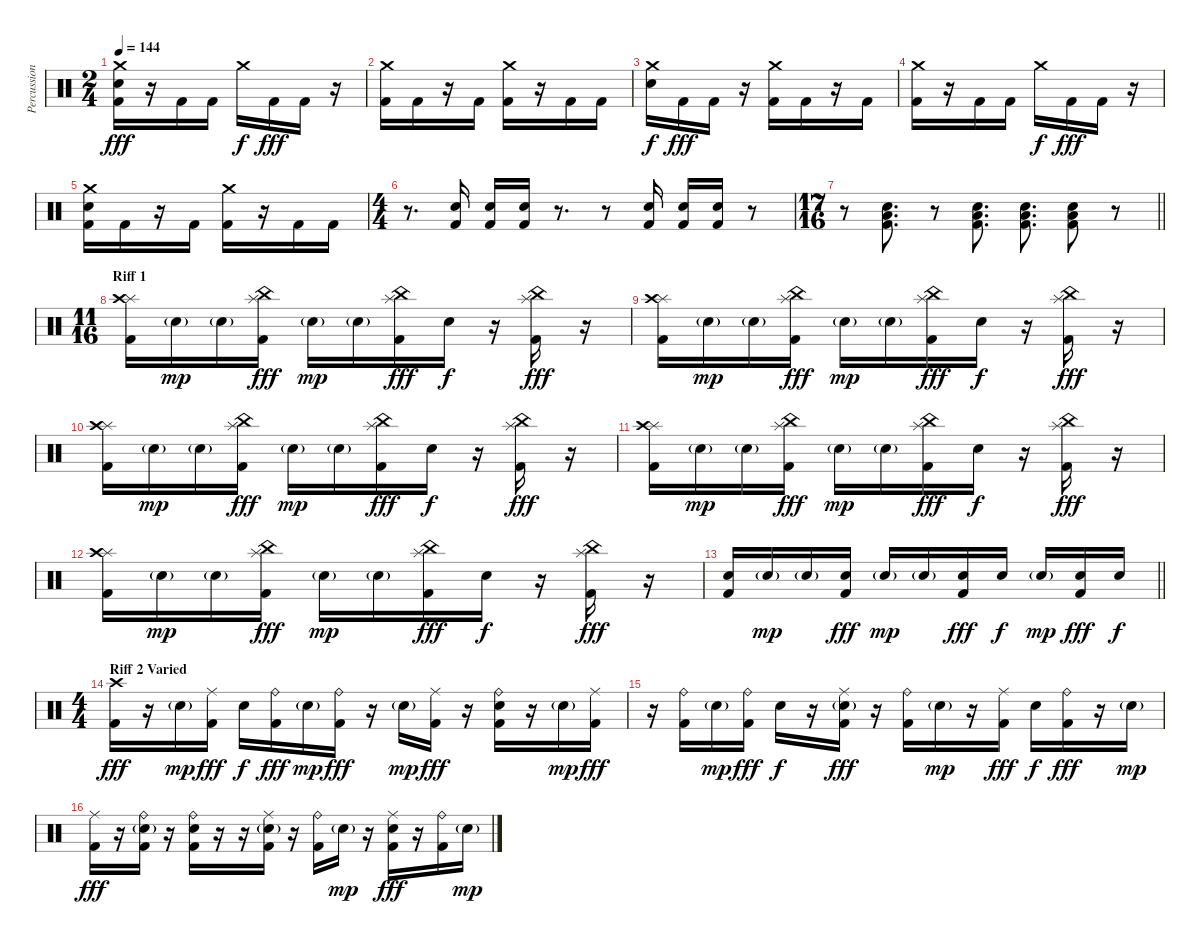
\track ("Percussion" "Percussion") {instrument percussion}
\staff {score}
\articulation defaults
\ts (2 4)
\tempo 144
\clef neutral
\ks c
("Crash medium (hit)" "Electric Snare (hit)" "Kick (hit) 2").16{dy fff} r.16 "Kick (hit) 2".16 "Kick (hit) 2".16 "Crash medium (hit)".16{dy f} "Kick (hit) 2".16{dy fff} "Kick (hit) 2".16 r.16 |
("Crash medium (hit)" "Kick (hit) 2").16 "Kick (hit) 2".16 r.16 "Kick (hit) 2".16 ("Crash medium (hit)" "Kick (hit) 2").16 r.16 "Kick (hit) 2".16 "Kick (hit) 2".16 |
("Crash medium (hit)" "Electric Snare (hit)").16{dy f} "Kick (hit) 2".16{dy fff} "Kick (hit) 2".16 r.16 ("Crash medium (hit)" "Kick (hit) 2").16 "Kick (hit) 2".16 r.16 "Kick (hit) 2".16 |
("Crash medium (hit)" "Kick (hit) 2").16 r.16 "Kick (hit) 2".16 "Kick (hit) 2".16 "Crash medium (hit)".16{dy f} "Kick (hit) 2".16{dy fff} "Kick (hit) 2".16 r.16 |
("Crash medium (hit)" "Electric Snare (hit)" "Kick (hit) 2").16 "Kick (hit) 2".16 r.16 "Kick (hit) 2".16 ("Crash medium (hit)" "Kick (hit) 2").16 r.16 "Kick (hit) 2".16 "Kick (hit) 2".16 |
\ts (4 4)
r.8{d} ("Electric Snare (hit)" "Kick (hit) 2").16 ("Electric Snare (hit)" "Kick (hit) 2").16 ("Electric Snare (hit)" "Kick (hit) 2").16 r.8{d} r.8 ("Electric Snare (hit)" "Kick (hit) 2").16 ("Electric Snare (hit)" "Kick (hit) 2").16 ("Electric Snare (hit)" "Kick (hit) 2").16 r.8 |
\ts (17 16)
\barLineRight lightlight
r.8 ("Electric Snare (hit)" "Low Floor Tom (hit)" "Kick (hit) 2").8{d} r.8 ("Electric Snare (hit)" "Low Floor Tom (hit)" "Kick (hit) 2").8{d} ("Electric Snare (hit)" "Low Floor Tom (hit)" "Kick (hit) 2").8{d} ("Electric Snare (hit)" "Low Floor Tom (hit)" "Kick (hit) 2").8 r.8 |
\ts (11 16)
\section ("" "Riff 1")
("Splash (hit)" "Crash high (hit)" "Kick (hit) 2").16 "Electric Snare (hit)"{g}.16{dy mp} "Electric Snare (hit)"{g}.16 ("Splash (hit)" "China (hit)" "Kick (hit) 2").16{dy fff} "Electric Snare (hit)"{g}.16{dy mp} "Electric Snare (hit)"{g}.16 ("Splash (hit)" "China (hit)" "Kick (hit) 2").16{dy fff} "Electric Snare (hit)".16{dy f} r.16 ("Splash (hit)" "China (hit)" "Kick (hit) 2").16{dy fff} r.16 |
("Splash (hit)" "Crash high (hit)" "Kick (hit) 2").16 "Electric Snare (hit)"{g}.16{dy mp} "Electric Snare (hit)"{g}.16 ("Splash (hit)" "China (hit)" "Kick (hit) 2").16{dy fff} "Electric Snare (hit)"{g}.16{dy mp} "Electric Snare (hit)"{g}.16 ("Splash (hit)" "China (hit)" "Kick (hit) 2").16{dy fff} "Electric Snare (hit)".16{dy f} r.16 ("Splash (hit)" "China (hit)" "Kick (hit) 2").16{dy fff} r.16 |
("Splash (hit)" "Crash high (hit)" "Kick (hit) 2").16 "Electric Snare (hit)"{g}.16{dy mp} "Electric Snare (hit)"{g}.16 ("Splash (hit)" "China (hit)" "Kick (hit) 2").16{dy fff} "Electric Snare (hit)"{g}.16{dy mp} "Electric Snare (hit)"{g}.16 ("Splash (hit)" "China (hit)" "Kick (hit) 2").16{dy fff} "Electric Snare (hit)".16{dy f} r.16 ("Splash (hit)" "China (hit)" "Kick (hit) 2").16{dy fff} r.16 |
("Splash (hit)" "Crash high (hit)" "Kick (hit) 2").16 "Electric Snare (hit)"{g}.16{dy mp} "Electric Snare (hit)"{g}.16 ("Splash (hit)" "China (hit)" "Kick (hit) 2").16{dy fff} "Electric Snare (hit)"{g}.16{dy mp} "Electric Snare (hit)"{g}.16 ("Splash (hit)" "China (hit)" "Kick (hit) 2").16{dy fff} "Electric Snare (hit)".16{dy f} r.16 ("Splash (hit)" "China (hit)" "Kick (hit) 2").16{dy fff} r.16 |
("Splash (hit)" "Crash high (hit)" "Kick (hit) 2").16 "Electric Snare (hit)"{g}.16{dy mp} "Electric Snare (hit)"{g}.16 ("Splash (hit)" "China (hit)" "Kick (hit) 2").16{dy fff} "Electric Snare (hit)"{g}.16{dy mp} "Electric Snare (hit)"{g}.16 ("Splash (hit)" "China (hit)" "Kick (hit) 2").16{dy fff} "Electric Snare (hit)".16{dy f} r.16 ("Splash (hit)" "China (hit)" "Kick (hit) 2").16{dy fff} r.16 |
\barLineRight lightlight
("Electric Snare (hit)" "Kick (hit) 2").16 "Electric Snare (hit)"{g}.16{dy mp} "Electric Snare (hit)"{g}.16 ("Electric Snare (hit)" "Kick (hit) 2").16{dy fff} "Electric Snare (hit)"{g}.16{dy mp} "Electric Snare (hit)"{g}.16 ("Electric Snare (hit)" "Kick (hit) 2").16{dy fff} "Electric Snare (hit)".16{dy f} "Electric Snare (hit)"{g}.16{dy mp} ("Electric Snare (hit)" "Kick (hit) 2").16{dy fff} "Electric Snare (hit)".16{dy f} |
\ts (4 4)
\section ("" "Riff 2 Varied")
("Crash high (hit)" "Kick (hit) 2").16{dy fff} r.16 "Electric Snare (hit)"{g}.16{dy mp} ("Ride (middle)" "Kick (hit) 2").16{dy fff} "Electric Snare (hit)".16{dy f} ("Ride (bell)" "Kick (hit) 2").16{dy fff} "Electric Snare (hit)"{g}.16{dy mp} ("Ride (bell)" "Kick (hit) 2").16{dy fff} r.16 "Electric Snare (hit)"{g}.16{dy mp} ("Ride (middle)" "Kick (hit) 2").16{dy fff} r.16 ("Ride (bell)" "Electric Snare (hit)" "Kick (hit) 2").16 r.16 "Electric Snare (hit)"{g}.16{dy mp} ("Ride (middle)" "Kick (hit) 2").16{dy fff} |
r.16 ("Ride (bell)" "Kick (hit) 2").16 "Electric Snare (hit)"{g}.16{dy mp} ("Ride (bell)" "Kick (hit) 2").16{dy fff} "Electric Snare (hit)".16{dy f} r.16 ("Ride (middle)" "Electric Snare (hit)"{g} "Kick (hit) 2").16{dy fff} r.16 ("Ride (bell)" "Kick (hit) 2").16 "Electric Snare (hit)"{g}.16{dy mp} r.16 ("Ride (middle)" "Kick (hit) 2").16{dy fff} "Electric Snare (hit)".16{dy f} ("Ride (bell)" "Kick (hit) 2").16{dy fff} r.16 "Electric Snare (hit)"{g}.16{dy mp} |
("Ride (middle)" "Kick (hit) 2").16{dy fff} r.16 ("Ride (bell)" "Electric Snare (hit)"{g} "Kick (hit) 2").16 r.16 ("Ride (bell)" "Electric Snare (hit)" "Kick (hit) 2").16 r.16 r.16 ("Ride (middle)" "Electric Snare (hit)"{g} "Kick (hit) 2").16 r.16 ("Ride (bell)" "Kick (hit) 2").16 "Electric Snare (hit)"{g}.16{dy mp} r.16 ("Ride (middle)" "Electric Snare (hit)" "Kick (hit) 2").16{dy fff} r.16 ("Ride (bell)" "Kick (hit) 2").16 "Electric Snare (hit)"{g}.16{dy mp}
